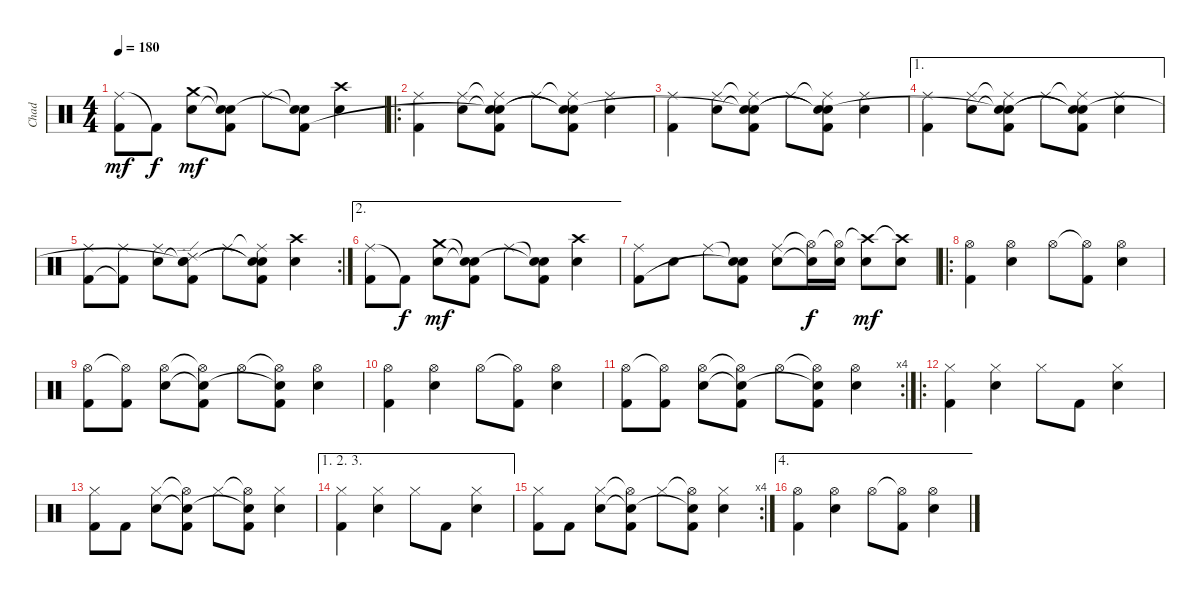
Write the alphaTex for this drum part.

\track ("Chad" "Chad") {instrument percussion}
\staff {score}
\articulation defaults
\ts (4 4)
\tempo 180
\clef neutral
\ks c
("Ride (middle)" "Kick (hit) 2").8{dy mf} "Kick (hit) 2"{t}.8{dy f} ("Crash medium (hit)" "Snare (hit) 2").8{dy mf} ("Snare (hit)"{t} "Snare (hit) 2"{t} "Kick (hit) 2").8 "Ride (middle)".8 ("Snare (hit)"{t} "Snare (hit) 2"{t} "Kick (hit) 2").8 ("Crash high (hit)" "Snare (hit) 2").4 |
\ro
("Ride (middle)" "Kick (hit) 2").4 ("Ride (middle)" "Snare (hit) 2").8 ("Ride (middle)"{t} "Snare (hit)"{t} "Snare (hit) 2"{t} "Kick (hit) 2").8 "Ride (middle)".8 ("Ride (middle)"{t} "Snare (hit)"{t} "Snare (hit) 2"{t} "Kick (hit) 2").8 ("Ride (middle)" "Snare (hit) 2").4 |
("Ride (middle)" "Kick (hit) 2").4 ("Ride (middle)" "Snare (hit) 2").8 ("Ride (middle)"{t} "Snare (hit)"{t} "Snare (hit) 2"{t} "Kick (hit) 2").8 "Ride (middle)".8 ("Ride (middle)"{t} "Snare (hit)"{t} "Snare (hit) 2"{t} "Kick (hit) 2").8 ("Ride (middle)" "Snare (hit) 2").4 |
\ae 1
("Ride (middle)" "Kick (hit) 2").4 ("Ride (middle)" "Snare (hit) 2").8 ("Ride (middle)"{t} "Snare (hit)"{t} "Snare (hit) 2"{t} "Kick (hit) 2").8 "Ride (middle)".8 ("Ride (middle)"{t} "Snare (hit)"{t} "Snare (hit) 2"{t} "Kick (hit) 2").8 ("Ride (middle)" "Snare (hit) 2").4 |
\rc 2
("Ride (middle)" "Kick (hit) 2").8 ("Ride (middle)" "Kick (hit) 2"{t}).8 ("Ride (middle)" "Snare (hit) 2").8 ("Ride (edge) 2" "Snare (hit)"{t} "Snare (hit) 2"{t} "Kick (hit) 2").8 "Ride (middle)".8 ("Ride (middle)"{t} "Snare (hit)"{t} "Snare (hit) 2"{t} "Kick (hit) 2").8 ("Crash high (hit)" "Snare (hit) 2").4 |
\ae 2
("Ride (middle)" "Kick (hit) 2").8 "Kick (hit) 2"{t}.8{dy f} ("Crash medium (hit)" "Snare (hit) 2").8{dy mf} ("Snare (hit)"{t} "Snare (hit) 2"{t} "Kick (hit) 2").8 "Ride (middle)".8 ("Snare (hit)"{t} "Snare (hit) 2"{t} "Kick (hit) 2").8 ("Crash high (hit)" "Snare (hit) 2").4 |
("Ride (middle)" "Kick (hit) 2").8 "Snare (hit) 2".8 "Ride (middle)".8 ("Snare (hit)"{t} "Snare (hit) 2"{t} "Kick (hit) 2").8 ("Ride (middle)" "Snare (hit) 2").8 ("Hi-Hat (open)"{t} "Snare (hit) 2"{t}).16{dy f} ("Hi-Hat (open)"{t} "Snare (hit) 2").16 ("Crash high (hit)"{t} "Snare (hit) 2").8{dy mf} ("Crash high (hit)"{t} "Snare (hit) 2").8 |
\ro
("Hi-Hat (open)" "Kick (hit) 2").4 ("Hi-Hat (open)" "Snare (hit) 2").4 "Hi-Hat (open)".8 ("Hi-Hat (open)"{t} "Kick (hit) 2").8 ("Hi-Hat (open)" "Snare (hit) 2").4 |
("Hi-Hat (open)" "Kick (hit) 2").8 ("Hi-Hat (open)"{t} "Kick (hit) 2").8 ("Hi-Hat (open)" "Snare (hit) 2").8 ("Hi-Hat (open)"{t} "Snare (hit) 2"{t} "Kick (hit) 2").8 "Hi-Hat (open)".8 ("Hi-Hat (open)"{t} "Snare (hit) 2"{t} "Kick (hit) 2").8 ("Hi-Hat (open)" "Snare (hit) 2").4 |
("Hi-Hat (open)" "Kick (hit) 2").4 ("Hi-Hat (open)" "Snare (hit) 2").4 "Hi-Hat (open)".8 ("Hi-Hat (open)"{t} "Kick (hit) 2").8 ("Hi-Hat (open)" "Snare (hit) 2").4 |
\rc 4
("Hi-Hat (open)" "Kick (hit) 2").8 ("Hi-Hat (open)"{t} "Kick (hit) 2").8 ("Hi-Hat (open)" "Snare (hit) 2").8 ("Hi-Hat (open)"{t} "Snare (hit) 2"{t} "Kick (hit) 2").8 "Hi-Hat (open)".8 ("Hi-Hat (open)"{t} "Snare (hit) 2"{t} "Kick (hit) 2").8 ("Hi-Hat (open)" "Snare (hit) 2").4 |
\ro
("Hi-Hat (closed)" "Kick (hit) 2").4 ("Hi-Hat (closed)" "Snare (hit) 2").4 "Hi-Hat (closed)".8 "Kick (hit) 2".8 ("Hi-Hat (closed)" "Snare (hit) 2").4 |
("Hi-Hat (closed)" "Kick (hit) 2").8 "Kick (hit) 2".8 ("Hi-Hat (closed)" "Snare (hit) 2").8 ("Hi-Hat (open)"{t} "Snare (hit) 2"{t} "Kick (hit) 2").8 "Hi-Hat (closed)".8 ("Hi-Hat (open)"{t} "Snare (hit) 2"{t} "Kick (hit) 2").8 ("Hi-Hat (closed)" "Snare (hit) 2").4 |
\ae (1 2 3)
("Hi-Hat (closed)" "Kick (hit) 2").4 ("Hi-Hat (closed)" "Snare (hit) 2").4 "Hi-Hat (closed)".8 "Kick (hit) 2".8 ("Hi-Hat (closed)" "Snare (hit) 2").4 |
\rc 4
("Hi-Hat (closed)" "Kick (hit) 2").8 "Kick (hit) 2".8 ("Hi-Hat (closed)" "Snare (hit) 2").8 ("Hi-Hat (open)"{t} "Snare (hit) 2"{t} "Kick (hit) 2").8 "Hi-Hat (closed)".8 ("Hi-Hat (open)"{t} "Snare (hit) 2"{t} "Kick (hit) 2").8 ("Hi-Hat (closed)" "Snare (hit) 2").4 |
\ae 4
("Hi-Hat (open)" "Kick (hit) 2").4 ("Hi-Hat (open)" "Snare (hit) 2").4 "Hi-Hat (open)".8 ("Hi-Hat (open)"{t} "Kick (hit) 2").8 ("Hi-Hat (open)" "Snare (hit) 2").4
